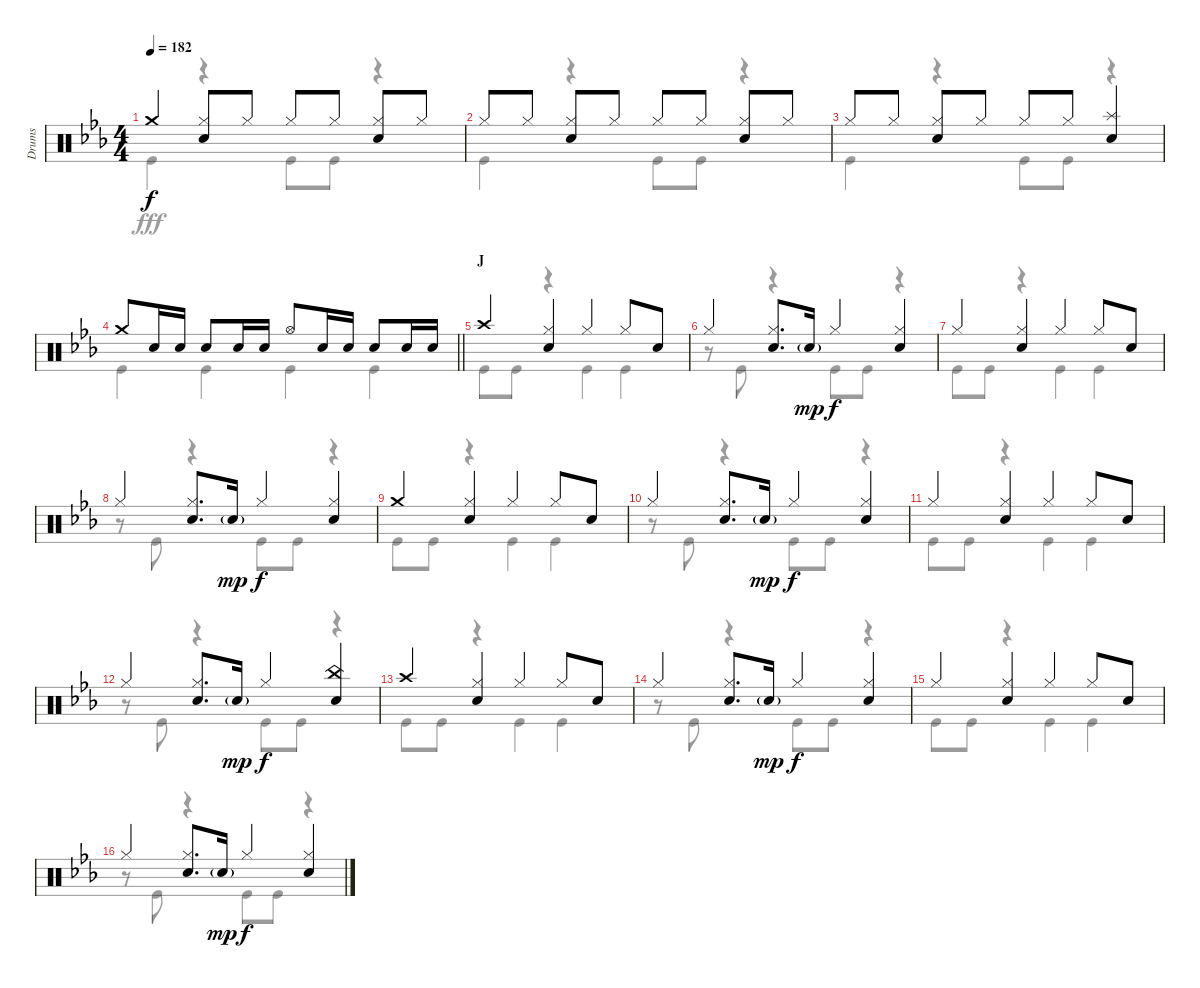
\track ("Drums" "Drums") {instrument percussion}
\staff {score}
\articulation defaults
\voice
\ts (4 4)
\tempo 182
\clef neutral
\ks eb "Crash medium (hit)".4{dy f}
("Hi-Hat (closed)" "Snare (hit) 2").8 "Hi-Hat (closed)".8 "Hi-Hat (closed)".8 "Hi-Hat (closed)".8 ("Hi-Hat (closed)" "Snare (hit) 2").8 "Hi-Hat (closed)".8 |
"Hi-Hat (closed)".8 "Hi-Hat (closed)".8 ("Hi-Hat (closed)" "Snare (hit) 2").8 "Hi-Hat (closed)".8 "Hi-Hat (closed)".8 "Hi-Hat (closed)".8 ("Hi-Hat (closed)" "Snare (hit) 2").8 "Hi-Hat (closed)".8 |
"Hi-Hat (closed)".8 "Hi-Hat (closed)".8 ("Hi-Hat (closed)" "Snare (hit) 2").8 "Hi-Hat (closed)".8 "Hi-Hat (closed)".8 "Hi-Hat (closed)".8 ("Splash (hit)" "Snare (hit) 2").4 |
\barLineRight lightlight "Crash medium (hit)".8 "Snare (hit) 2".16 "Snare (hit) 2".16 "Snare (hit) 2".8 "Snare (hit) 2".16 "Snare (hit) 2".16 "Hi-Hat (open)".8 "Snare (hit) 2".16 "Snare (hit) 2".16 "Snare (hit) 2".8 "Snare (hit) 2".16 "Snare (hit) 2".16
|
\section ("" "J")
"Crash high (hit)".4 ("Hi-Hat (closed)" "Snare (hit) 2").4 "Hi-Hat (closed)".4 "Hi-Hat (closed)".8 "Snare (hit) 2".8 |
"Hi-Hat (closed)".4 ("Hi-Hat (closed)" "Snare (hit) 2").8{d} "Snare (hit) 2"{g}.16{dy mp} "Hi-Hat (closed)".4{dy f} ("Hi-Hat (closed)" "Snare (hit) 2").4 |
"Hi-Hat (closed)".4 ("Hi-Hat (closed)" "Snare (hit) 2").4 "Hi-Hat (closed)".4 "Hi-Hat (closed)".8 "Snare (hit) 2".8 |
"Hi-Hat (closed)".4 ("Hi-Hat (closed)" "Snare (hit) 2").8{d} "Snare (hit) 2"{g}.16{dy mp} "Hi-Hat (closed)".4{dy f} ("Hi-Hat (closed)" "Snare (hit) 2").4 |
"Crash medium (hit)".4 ("Hi-Hat (closed)" "Snare (hit) 2").4 "Hi-Hat (closed)".4 "Hi-Hat (closed)".8 "Snare (hit) 2".8 |
"Hi-Hat (closed)".4 ("Hi-Hat (closed)" "Snare (hit) 2").8{d} "Snare (hit) 2"{g}.16{dy mp} "Hi-Hat (closed)".4{dy f} ("Hi-Hat (closed)" "Snare (hit) 2").4 |
"Hi-Hat (closed)".4 ("Hi-Hat (closed)" "Snare (hit) 2").4 "Hi-Hat (closed)".4 "Hi-Hat (closed)".8 "Snare (hit) 2".8 |
"Hi-Hat (closed)".4 ("Hi-Hat (closed)" "Snare (hit) 2").8{d} "Snare (hit) 2"{g}.16{dy mp} "Hi-Hat (closed)".4{dy f} ("China (hit)" "Snare (hit) 2").4 |
"Crash high (hit)".4 ("Hi-Hat (closed)" "Snare (hit) 2").4 "Hi-Hat (closed)".4 "Hi-Hat (closed)".8 "Snare (hit) 2".8 |
"Hi-Hat (closed)".4 ("Hi-Hat (closed)" "Snare (hit) 2").8{d} "Snare (hit) 2"{g}.16{dy mp} "Hi-Hat (closed)".4{dy f} ("Hi-Hat (closed)" "Snare (hit) 2").4 |
"Hi-Hat (closed)".4 ("Hi-Hat (closed)" "Snare (hit) 2").4 "Hi-Hat (closed)".4 "Hi-Hat (closed)".8 "Snare (hit) 2".8 |
"Hi-Hat (closed)".4 ("Hi-Hat (closed)" "Snare (hit) 2").8{d} "Snare (hit) 2"{g}.16{dy mp} "Hi-Hat (closed)".4{dy f} ("Hi-Hat (closed)" "Snare (hit) 2").4
\voice
\clef neutral
\ottava regular
\simile none
\ks eb "Kick (hit)".4{dy fff}
r.4 "Kick (hit)".8 "Kick (hit)".8 r.4 |
"Kick (hit)".4 r.4 "Kick (hit)".8 "Kick (hit)".8 r.4 |
"Kick (hit)".4 r.4 "Kick (hit)".8 "Kick (hit)".8 r.4 |
\barLineRight lightlight "Kick (hit)".4 "Kick (hit)".4 "Kick (hit)".4 "Kick (hit)".4
|
"Kick (hit)".8 "Kick (hit)".8 r.4 "Kick (hit)".4 "Kick (hit)".4 |
r.8 "Kick (hit)".8 r.4 "Kick (hit)".8 "Kick (hit)".8 r.4 |
"Kick (hit)".8 "Kick (hit)".8 r.4 "Kick (hit)".4 "Kick (hit)".4 |
r.8 "Kick (hit)".8 r.4 "Kick (hit)".8 "Kick (hit)".8 r.4 |
"Kick (hit)".8 "Kick (hit)".8 r.4 "Kick (hit)".4 "Kick (hit)".4 |
r.8 "Kick (hit)".8 r.4 "Kick (hit)".8 "Kick (hit)".8 r.4 |
"Kick (hit)".8 "Kick (hit)".8 r.4 "Kick (hit)".4 "Kick (hit)".4 |
r.8 "Kick (hit)".8 r.4 "Kick (hit)".8 "Kick (hit)".8 r.4 |
"Kick (hit)".8 "Kick (hit)".8 r.4 "Kick (hit)".4 "Kick (hit)".4 |
r.8 "Kick (hit)".8 r.4 "Kick (hit)".8 "Kick (hit)".8 r.4 |
"Kick (hit)".8 "Kick (hit)".8 r.4 "Kick (hit)".4 "Kick (hit)".4 |
r.8 "Kick (hit)".8 r.4 "Kick (hit)".8 "Kick (hit)".8 r.4
